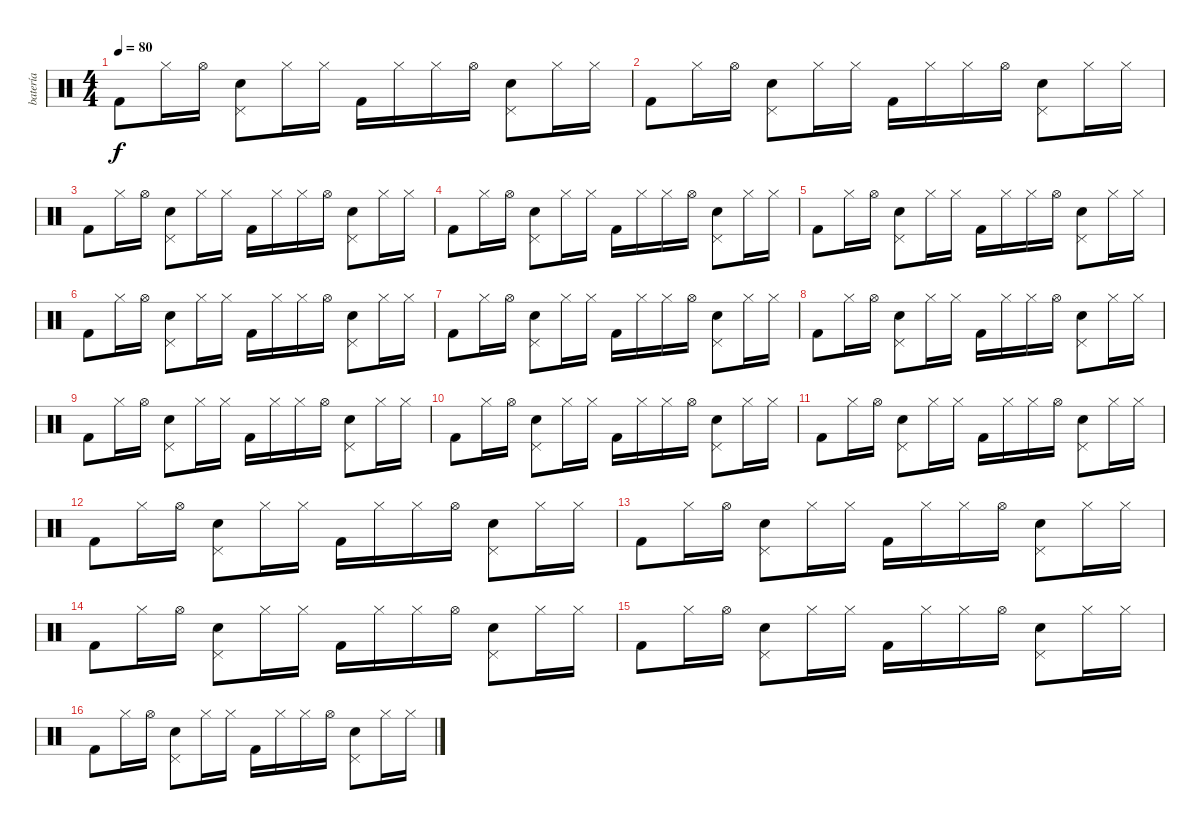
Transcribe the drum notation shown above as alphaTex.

\track ("batería" "batería") {instrument percussion}
\staff {score}
\articulation defaults
\ts (4 4)
\tempo 80
\clef neutral
\ks c "Kick (hit) 2".8{dy f} "Hi-Hat (closed)".16 "Hi-Hat (open)".16
("Snare (hit) 2" "Pedal Hi-Hat (hit)").8 "Hi-Hat (closed)".16 "Hi-Hat (closed)".16 "Kick (hit) 2".16 "Hi-Hat (closed)".16 "Hi-Hat (closed)".16 "Hi-Hat (open)".16 ("Snare (hit) 2" "Pedal Hi-Hat (hit)").8 "Hi-Hat (closed)".16 "Hi-Hat (closed)".16 |
"Kick (hit) 2".8 "Hi-Hat (closed)".16 "Hi-Hat (open)".16 ("Snare (hit) 2" "Pedal Hi-Hat (hit)").8 "Hi-Hat (closed)".16 "Hi-Hat (closed)".16 "Kick (hit) 2".16 "Hi-Hat (closed)".16 "Hi-Hat (closed)".16 "Hi-Hat (open)".16 ("Snare (hit) 2" "Pedal Hi-Hat (hit)").8 "Hi-Hat (closed)".16 "Hi-Hat (closed)".16 |
"Kick (hit) 2".8 "Hi-Hat (closed)".16 "Hi-Hat (open)".16 ("Snare (hit) 2" "Pedal Hi-Hat (hit)").8 "Hi-Hat (closed)".16 "Hi-Hat (closed)".16 "Kick (hit) 2".16 "Hi-Hat (closed)".16 "Hi-Hat (closed)".16 "Hi-Hat (open)".16 ("Snare (hit) 2" "Pedal Hi-Hat (hit)").8 "Hi-Hat (closed)".16 "Hi-Hat (closed)".16 |
"Kick (hit) 2".8 "Hi-Hat (closed)".16 "Hi-Hat (open)".16 ("Snare (hit) 2" "Pedal Hi-Hat (hit)").8 "Hi-Hat (closed)".16 "Hi-Hat (closed)".16 "Kick (hit) 2".16 "Hi-Hat (closed)".16 "Hi-Hat (closed)".16 "Hi-Hat (open)".16 ("Snare (hit) 2" "Pedal Hi-Hat (hit)").8 "Hi-Hat (closed)".16 "Hi-Hat (closed)".16 |
"Kick (hit) 2".8 "Hi-Hat (closed)".16 "Hi-Hat (open)".16 ("Snare (hit) 2" "Pedal Hi-Hat (hit)").8 "Hi-Hat (closed)".16 "Hi-Hat (closed)".16 "Kick (hit) 2".16 "Hi-Hat (closed)".16 "Hi-Hat (closed)".16 "Hi-Hat (open)".16 ("Snare (hit) 2" "Pedal Hi-Hat (hit)").8 "Hi-Hat (closed)".16 "Hi-Hat (closed)".16 |
"Kick (hit) 2".8 "Hi-Hat (closed)".16 "Hi-Hat (open)".16 ("Snare (hit) 2" "Pedal Hi-Hat (hit)").8 "Hi-Hat (closed)".16 "Hi-Hat (closed)".16 "Kick (hit) 2".16 "Hi-Hat (closed)".16 "Hi-Hat (closed)".16 "Hi-Hat (open)".16 ("Snare (hit) 2" "Pedal Hi-Hat (hit)").8 "Hi-Hat (closed)".16 "Hi-Hat (closed)".16 |
"Kick (hit) 2".8 "Hi-Hat (closed)".16 "Hi-Hat (open)".16 ("Snare (hit) 2" "Pedal Hi-Hat (hit)").8 "Hi-Hat (closed)".16 "Hi-Hat (closed)".16 "Kick (hit) 2".16 "Hi-Hat (closed)".16 "Hi-Hat (closed)".16 "Hi-Hat (open)".16 ("Snare (hit) 2" "Pedal Hi-Hat (hit)").8 "Hi-Hat (closed)".16 "Hi-Hat (closed)".16 |
"Kick (hit) 2".8 "Hi-Hat (closed)".16 "Hi-Hat (open)".16 ("Snare (hit) 2" "Pedal Hi-Hat (hit)").8 "Hi-Hat (closed)".16 "Hi-Hat (closed)".16 "Kick (hit) 2".16 "Hi-Hat (closed)".16 "Hi-Hat (closed)".16 "Hi-Hat (open)".16 ("Snare (hit) 2" "Pedal Hi-Hat (hit)").8 "Hi-Hat (closed)".16 "Hi-Hat (closed)".16 |
"Kick (hit) 2".8 "Hi-Hat (closed)".16 "Hi-Hat (open)".16 ("Snare (hit) 2" "Pedal Hi-Hat (hit)").8 "Hi-Hat (closed)".16 "Hi-Hat (closed)".16 "Kick (hit) 2".16 "Hi-Hat (closed)".16 "Hi-Hat (closed)".16 "Hi-Hat (open)".16 ("Snare (hit) 2" "Pedal Hi-Hat (hit)").8 "Hi-Hat (closed)".16 "Hi-Hat (closed)".16 |
"Kick (hit) 2".8 "Hi-Hat (closed)".16 "Hi-Hat (open)".16 ("Snare (hit) 2" "Pedal Hi-Hat (hit)").8 "Hi-Hat (closed)".16 "Hi-Hat (closed)".16 "Kick (hit) 2".16 "Hi-Hat (closed)".16 "Hi-Hat (closed)".16 "Hi-Hat (open)".16 ("Snare (hit) 2" "Pedal Hi-Hat (hit)").8 "Hi-Hat (closed)".16 "Hi-Hat (closed)".16 |
"Kick (hit) 2".8 "Hi-Hat (closed)".16 "Hi-Hat (open)".16 ("Snare (hit) 2" "Pedal Hi-Hat (hit)").8 "Hi-Hat (closed)".16 "Hi-Hat (closed)".16 "Kick (hit) 2".16 "Hi-Hat (closed)".16 "Hi-Hat (closed)".16 "Hi-Hat (open)".16 ("Snare (hit) 2" "Pedal Hi-Hat (hit)").8 "Hi-Hat (closed)".16 "Hi-Hat (closed)".16 |
"Kick (hit) 2".8 "Hi-Hat (closed)".16 "Hi-Hat (open)".16 ("Snare (hit) 2" "Pedal Hi-Hat (hit)").8 "Hi-Hat (closed)".16 "Hi-Hat (closed)".16 "Kick (hit) 2".16 "Hi-Hat (closed)".16 "Hi-Hat (closed)".16 "Hi-Hat (open)".16 ("Snare (hit) 2" "Pedal Hi-Hat (hit)").8 "Hi-Hat (closed)".16 "Hi-Hat (closed)".16 |
"Kick (hit) 2".8 "Hi-Hat (closed)".16 "Hi-Hat (open)".16 ("Snare (hit) 2" "Pedal Hi-Hat (hit)").8 "Hi-Hat (closed)".16 "Hi-Hat (closed)".16 "Kick (hit) 2".16 "Hi-Hat (closed)".16 "Hi-Hat (closed)".16 "Hi-Hat (open)".16 ("Snare (hit) 2" "Pedal Hi-Hat (hit)").8 "Hi-Hat (closed)".16 "Hi-Hat (closed)".16 |
"Kick (hit) 2".8 "Hi-Hat (closed)".16 "Hi-Hat (open)".16 ("Snare (hit) 2" "Pedal Hi-Hat (hit)").8 "Hi-Hat (closed)".16 "Hi-Hat (closed)".16 "Kick (hit) 2".16 "Hi-Hat (closed)".16 "Hi-Hat (closed)".16 "Hi-Hat (open)".16 ("Snare (hit) 2" "Pedal Hi-Hat (hit)").8 "Hi-Hat (closed)".16 "Hi-Hat (closed)".16 |
"Kick (hit) 2".8 "Hi-Hat (closed)".16 "Hi-Hat (open)".16 ("Snare (hit) 2" "Pedal Hi-Hat (hit)").8 "Hi-Hat (closed)".16 "Hi-Hat (closed)".16 "Kick (hit) 2".16 "Hi-Hat (closed)".16 "Hi-Hat (closed)".16 "Hi-Hat (open)".16 ("Snare (hit) 2" "Pedal Hi-Hat (hit)").8 "Hi-Hat (closed)".16 "Hi-Hat (closed)".16 |
"Kick (hit) 2".8 "Hi-Hat (closed)".16 "Hi-Hat (open)".16 ("Snare (hit) 2" "Pedal Hi-Hat (hit)").8 "Hi-Hat (closed)".16 "Hi-Hat (closed)".16 "Kick (hit) 2".16 "Hi-Hat (closed)".16 "Hi-Hat (closed)".16 "Hi-Hat (open)".16 ("Snare (hit) 2" "Pedal Hi-Hat (hit)").8 "Hi-Hat (closed)".16 "Hi-Hat (closed)".16
